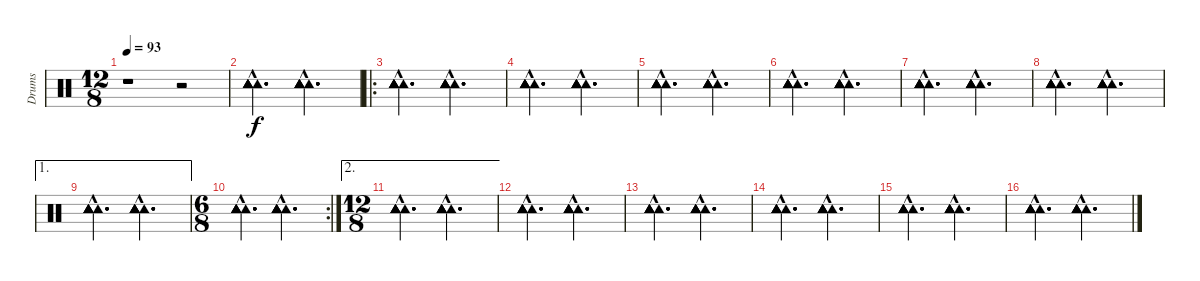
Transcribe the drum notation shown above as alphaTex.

\track ("Drums" "Drums") {instrument percussion}
\staff {score}
\articulation defaults
\ts (12 8)
\tempo 93
\clef neutral
\ks c
r.1{dy f} r.2 |
("Tambourine (hit)"{hac} "Tambourine (hit)"{hac} "Tambourine (hit)"{hac} "Tambourine (hit)"{hac} "Tambourine (hit)"{hac} "Tambourine (hit)"{hac}).2{d} ("Tambourine (hit)"{hac} "Tambourine (hit)"{hac} "Tambourine (hit)"{hac} "Tambourine (hit)"{hac} "Tambourine (hit)"{hac} "Tambourine (hit)"{hac}).2{d} |
\ro
("Tambourine (hit)"{hac} "Tambourine (hit)"{hac} "Tambourine (hit)"{hac} "Tambourine (hit)"{hac} "Tambourine (hit)"{hac} "Tambourine (hit)"{hac}).2{d} ("Tambourine (hit)"{hac} "Tambourine (hit)"{hac} "Tambourine (hit)"{hac} "Tambourine (hit)"{hac} "Tambourine (hit)"{hac} "Tambourine (hit)"{hac}).2{d} |
("Tambourine (hit)"{hac} "Tambourine (hit)"{hac} "Tambourine (hit)"{hac} "Tambourine (hit)"{hac} "Tambourine (hit)"{hac} "Tambourine (hit)"{hac}).2{d} ("Tambourine (hit)"{hac} "Tambourine (hit)"{hac} "Tambourine (hit)"{hac} "Tambourine (hit)"{hac} "Tambourine (hit)"{hac} "Tambourine (hit)"{hac}).2{d} |
("Tambourine (hit)"{hac} "Tambourine (hit)"{hac} "Tambourine (hit)"{hac} "Tambourine (hit)"{hac} "Tambourine (hit)"{hac} "Tambourine (hit)"{hac}).2{d} ("Tambourine (hit)"{hac} "Tambourine (hit)"{hac} "Tambourine (hit)"{hac} "Tambourine (hit)"{hac} "Tambourine (hit)"{hac} "Tambourine (hit)"{hac}).2{d} |
("Tambourine (hit)"{hac} "Tambourine (hit)"{hac} "Tambourine (hit)"{hac} "Tambourine (hit)"{hac} "Tambourine (hit)"{hac} "Tambourine (hit)"{hac}).2{d} ("Tambourine (hit)"{hac} "Tambourine (hit)"{hac} "Tambourine (hit)"{hac} "Tambourine (hit)"{hac} "Tambourine (hit)"{hac} "Tambourine (hit)"{hac}).2{d} |
("Tambourine (hit)"{hac} "Tambourine (hit)"{hac} "Tambourine (hit)"{hac} "Tambourine (hit)"{hac} "Tambourine (hit)"{hac} "Tambourine (hit)"{hac}).2{d} ("Tambourine (hit)"{hac} "Tambourine (hit)"{hac} "Tambourine (hit)"{hac} "Tambourine (hit)"{hac} "Tambourine (hit)"{hac} "Tambourine (hit)"{hac}).2{d} |
("Tambourine (hit)"{hac} "Tambourine (hit)"{hac} "Tambourine (hit)"{hac} "Tambourine (hit)"{hac} "Tambourine (hit)"{hac} "Tambourine (hit)"{hac}).2{d} ("Tambourine (hit)"{hac} "Tambourine (hit)"{hac} "Tambourine (hit)"{hac} "Tambourine (hit)"{hac} "Tambourine (hit)"{hac} "Tambourine (hit)"{hac}).2{d} |
\ae 1
("Tambourine (hit)"{hac} "Tambourine (hit)"{hac} "Tambourine (hit)"{hac} "Tambourine (hit)"{hac} "Tambourine (hit)"{hac} "Tambourine (hit)"{hac}).2{d} ("Tambourine (hit)"{hac} "Tambourine (hit)"{hac} "Tambourine (hit)"{hac} "Tambourine (hit)"{hac} "Tambourine (hit)"{hac} "Tambourine (hit)"{hac}).2{d} |
\rc 2
\ts (6 8)
("Tambourine (hit)"{hac} "Tambourine (hit)"{hac} "Tambourine (hit)"{hac} "Tambourine (hit)"{hac} "Tambourine (hit)"{hac} "Tambourine (hit)"{hac}).4{d} ("Tambourine (hit)"{hac} "Tambourine (hit)"{hac} "Tambourine (hit)"{hac} "Tambourine (hit)"{hac} "Tambourine (hit)"{hac} "Tambourine (hit)"{hac}).4{d} |
\ae 2
\ts (12 8)
("Tambourine (hit)"{hac} "Tambourine (hit)"{hac} "Tambourine (hit)"{hac} "Tambourine (hit)"{hac} "Tambourine (hit)"{hac} "Tambourine (hit)"{hac}).2{d} ("Tambourine (hit)"{hac} "Tambourine (hit)"{hac} "Tambourine (hit)"{hac} "Tambourine (hit)"{hac} "Tambourine (hit)"{hac} "Tambourine (hit)"{hac}).2{d} |
("Tambourine (hit)"{hac} "Tambourine (hit)"{hac} "Tambourine (hit)"{hac} "Tambourine (hit)"{hac} "Tambourine (hit)"{hac} "Tambourine (hit)"{hac}).2{d} ("Tambourine (hit)"{hac} "Tambourine (hit)"{hac} "Tambourine (hit)"{hac} "Tambourine (hit)"{hac} "Tambourine (hit)"{hac} "Tambourine (hit)"{hac}).2{d} |
("Tambourine (hit)"{hac} "Tambourine (hit)"{hac} "Tambourine (hit)"{hac} "Tambourine (hit)"{hac} "Tambourine (hit)"{hac} "Tambourine (hit)"{hac}).2{d} ("Tambourine (hit)"{hac} "Tambourine (hit)"{hac} "Tambourine (hit)"{hac} "Tambourine (hit)"{hac} "Tambourine (hit)"{hac} "Tambourine (hit)"{hac}).2{d} |
("Tambourine (hit)"{hac} "Tambourine (hit)"{hac} "Tambourine (hit)"{hac} "Tambourine (hit)"{hac} "Tambourine (hit)"{hac} "Tambourine (hit)"{hac}).2{d} ("Tambourine (hit)"{hac} "Tambourine (hit)"{hac} "Tambourine (hit)"{hac} "Tambourine (hit)"{hac} "Tambourine (hit)"{hac} "Tambourine (hit)"{hac}).2{d} |
("Tambourine (hit)"{hac} "Tambourine (hit)"{hac} "Tambourine (hit)"{hac} "Tambourine (hit)"{hac} "Tambourine (hit)"{hac} "Tambourine (hit)"{hac}).2{d} ("Tambourine (hit)"{hac} "Tambourine (hit)"{hac} "Tambourine (hit)"{hac} "Tambourine (hit)"{hac} "Tambourine (hit)"{hac} "Tambourine (hit)"{hac}).2{d} |
("Tambourine (hit)"{hac} "Tambourine (hit)"{hac} "Tambourine (hit)"{hac} "Tambourine (hit)"{hac} "Tambourine (hit)"{hac} "Tambourine (hit)"{hac}).2{d} ("Tambourine (hit)"{hac} "Tambourine (hit)"{hac} "Tambourine (hit)"{hac} "Tambourine (hit)"{hac} "Tambourine (hit)"{hac} "Tambourine (hit)"{hac}).2{d}
